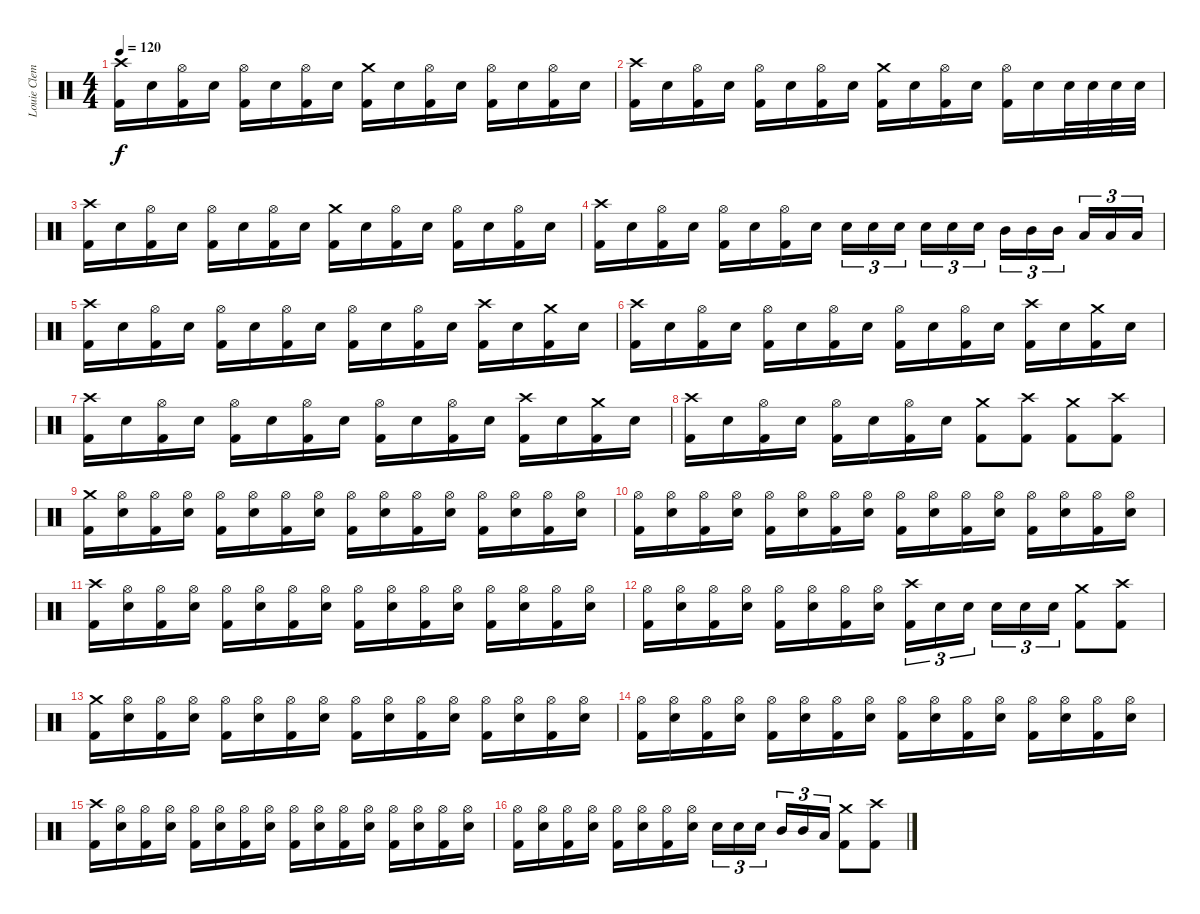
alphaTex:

\track ("Louie Clemente" "Louie Clem") {instrument percussion}
\staff {score}
\articulation defaults
\ts (4 4)
\tempo 120
\clef neutral
\ks c
("Crash high (hit)" "Kick (hit) 2").16{dy f} "Snare (hit) 2".16 ("Hi-Hat (open)" "Kick (hit) 2").16 "Snare (hit) 2".16 ("Hi-Hat (open)" "Kick (hit) 2").16 "Snare (hit) 2".16 ("Hi-Hat (open)" "Kick (hit) 2").16 "Snare (hit) 2".16 ("Crash medium (hit)" "Kick (hit) 2").16 "Snare (hit) 2".16 ("Hi-Hat (open)" "Kick (hit) 2").16 "Snare (hit) 2".16 ("Hi-Hat (open)" "Kick (hit) 2").16 "Snare (hit) 2".16 ("Hi-Hat (open)" "Kick (hit) 2").16 "Snare (hit) 2".16 |
("Crash high (hit)" "Kick (hit) 2").16 "Snare (hit) 2".16 ("Hi-Hat (open)" "Kick (hit) 2").16 "Snare (hit) 2".16 ("Hi-Hat (open)" "Kick (hit) 2").16 "Snare (hit) 2".16 ("Hi-Hat (open)" "Kick (hit) 2").16 "Snare (hit) 2".16 ("Crash medium (hit)" "Kick (hit) 2").16 "Snare (hit) 2".16 ("Hi-Hat (open)" "Kick (hit) 2").16 "Snare (hit) 2".16 ("Hi-Hat (open)" "Kick (hit) 2").16 "Snare (hit) 2".16 "Snare (hit) 2".32 "Snare (hit) 2".32 "Snare (hit) 2".32 "Snare (hit) 2".32 |
("Crash high (hit)" "Kick (hit) 2").16 "Snare (hit) 2".16 ("Hi-Hat (open)" "Kick (hit) 2").16 "Snare (hit) 2".16 ("Hi-Hat (open)" "Kick (hit) 2").16 "Snare (hit) 2".16 ("Hi-Hat (open)" "Kick (hit) 2").16 "Snare (hit) 2".16 ("Crash medium (hit)" "Kick (hit) 2").16 "Snare (hit) 2".16 ("Hi-Hat (open)" "Kick (hit) 2").16 "Snare (hit) 2".16 ("Hi-Hat (open)" "Kick (hit) 2").16 "Snare (hit) 2".16 ("Hi-Hat (open)" "Kick (hit) 2").16 "Snare (hit) 2".16 |
("Crash high (hit)" "Kick (hit) 2").16 "Snare (hit) 2".16 ("Hi-Hat (open)" "Kick (hit) 2").16 "Snare (hit) 2".16 ("Hi-Hat (open)" "Kick (hit) 2").16 "Snare (hit) 2".16 ("Hi-Hat (open)" "Kick (hit) 2").16 "Snare (hit) 2".16 "Snare (hit) 2".16{tu (3 2)} "Snare (hit) 2".16{tu (3 2)} "Snare (hit) 2".16{tu (3 2)} "Snare (hit) 2".16{tu (3 2)} "Snare (hit) 2".16{tu (3 2)} "Snare (hit) 2".16{tu (3 2)} "Mid Tom (hit)".16{tu (3 2)} "Mid Tom (hit)".16{tu (3 2)} "Mid Tom (hit)".16{tu (3 2)} "Low Tom (hit)".16{tu (3 2)} "Low Tom (hit)".16{tu (3 2)} "Low Tom (hit)".16{tu (3 2)} |
("Crash high (hit)" "Kick (hit) 2").16 "Snare (hit) 2".16 ("Hi-Hat (open)" "Kick (hit) 2").16 "Snare (hit) 2".16 ("Hi-Hat (open)" "Kick (hit) 2").16 "Snare (hit) 2".16 ("Hi-Hat (open)" "Kick (hit) 2").16 "Snare (hit) 2".16 ("Hi-Hat (open)" "Kick (hit) 2").16 "Snare (hit) 2".16 ("Hi-Hat (open)" "Kick (hit) 2").16 "Snare (hit) 2".16 ("Crash high (hit)" "Kick (hit) 2").16 "Snare (hit) 2".16 ("Crash medium (hit)" "Kick (hit) 2").16 "Snare (hit) 2".16 |
("Crash high (hit)" "Kick (hit) 2").16 "Snare (hit) 2".16 ("Hi-Hat (open)" "Kick (hit) 2").16 "Snare (hit) 2".16 ("Hi-Hat (open)" "Kick (hit) 2").16 "Snare (hit) 2".16 ("Hi-Hat (open)" "Kick (hit) 2").16 "Snare (hit) 2".16 ("Hi-Hat (open)" "Kick (hit) 2").16 "Snare (hit) 2".16 ("Hi-Hat (open)" "Kick (hit) 2").16 "Snare (hit) 2".16 ("Crash high (hit)" "Kick (hit) 2").16 "Snare (hit) 2".16 ("Crash medium (hit)" "Kick (hit) 2").16 "Snare (hit) 2".16 |
("Crash high (hit)" "Kick (hit) 2").16 "Snare (hit) 2".16 ("Hi-Hat (open)" "Kick (hit) 2").16 "Snare (hit) 2".16 ("Hi-Hat (open)" "Kick (hit) 2").16 "Snare (hit) 2".16 ("Hi-Hat (open)" "Kick (hit) 2").16 "Snare (hit) 2".16 ("Hi-Hat (open)" "Kick (hit) 2").16 "Snare (hit) 2".16 ("Hi-Hat (open)" "Kick (hit) 2").16 "Snare (hit) 2".16 ("Crash high (hit)" "Kick (hit) 2").16 "Snare (hit) 2".16 ("Crash medium (hit)" "Kick (hit) 2").16 "Snare (hit) 2".16 |
("Crash high (hit)" "Kick (hit) 2").16 "Snare (hit) 2".16 ("Hi-Hat (open)" "Kick (hit) 2").16 "Snare (hit) 2".16 ("Hi-Hat (open)" "Kick (hit) 2").16 "Snare (hit) 2".16 ("Hi-Hat (open)" "Kick (hit) 2").16 "Snare (hit) 2".16 ("Crash medium (hit)" "Kick (hit) 2").8 ("Crash high (hit)" "Kick (hit) 2").8 ("Crash medium (hit)" "Kick (hit) 2").8 ("Crash high (hit)" "Kick (hit) 2").8 |
("Crash medium (hit)" "Kick (hit) 2").16 ("Hi-Hat (open)" "Snare (hit) 2").16 ("Hi-Hat (open)" "Kick (hit) 2").16 ("Hi-Hat (open)" "Snare (hit) 2").16 ("Hi-Hat (open)" "Kick (hit) 2").16 ("Hi-Hat (open)" "Snare (hit) 2").16 ("Hi-Hat (open)" "Kick (hit) 2").16 ("Hi-Hat (open)" "Snare (hit) 2").16 ("Hi-Hat (open)" "Kick (hit) 2").16 ("Hi-Hat (open)" "Snare (hit) 2").16 ("Hi-Hat (open)" "Kick (hit) 2").16 ("Hi-Hat (open)" "Snare (hit) 2").16 ("Hi-Hat (open)" "Kick (hit) 2").16 ("Hi-Hat (open)" "Snare (hit) 2").16 ("Hi-Hat (open)" "Kick (hit) 2").16 ("Hi-Hat (open)" "Snare (hit) 2").16 |
("Hi-Hat (open)" "Kick (hit) 2").16 ("Hi-Hat (open)" "Snare (hit) 2").16 ("Hi-Hat (open)" "Kick (hit) 2").16 ("Hi-Hat (open)" "Snare (hit) 2").16 ("Hi-Hat (open)" "Kick (hit) 2").16 ("Hi-Hat (open)" "Snare (hit) 2").16 ("Hi-Hat (open)" "Kick (hit) 2").16 ("Hi-Hat (open)" "Snare (hit) 2").16 ("Hi-Hat (open)" "Kick (hit) 2").16 ("Hi-Hat (open)" "Snare (hit) 2").16 ("Hi-Hat (open)" "Kick (hit) 2").16 ("Hi-Hat (open)" "Snare (hit) 2").16 ("Hi-Hat (open)" "Kick (hit) 2").16 ("Hi-Hat (open)" "Snare (hit) 2").16 ("Hi-Hat (open)" "Kick (hit) 2").16 ("Hi-Hat (open)" "Snare (hit) 2").16 |
("Crash high (hit)" "Kick (hit) 2").16 ("Hi-Hat (open)" "Snare (hit) 2").16 ("Hi-Hat (open)" "Kick (hit) 2").16 ("Hi-Hat (open)" "Snare (hit) 2").16 ("Hi-Hat (open)" "Kick (hit) 2").16 ("Hi-Hat (open)" "Snare (hit) 2").16 ("Hi-Hat (open)" "Kick (hit) 2").16 ("Hi-Hat (open)" "Snare (hit) 2").16 ("Hi-Hat (open)" "Kick (hit) 2").16 ("Hi-Hat (open)" "Snare (hit) 2").16 ("Hi-Hat (open)" "Kick (hit) 2").16 ("Hi-Hat (open)" "Snare (hit) 2").16 ("Hi-Hat (open)" "Kick (hit) 2").16 ("Hi-Hat (open)" "Snare (hit) 2").16 ("Hi-Hat (open)" "Kick (hit) 2").16 ("Hi-Hat (open)" "Snare (hit) 2").16 |
("Hi-Hat (open)" "Kick (hit) 2").16 ("Hi-Hat (open)" "Snare (hit) 2").16 ("Hi-Hat (open)" "Kick (hit) 2").16 ("Hi-Hat (open)" "Snare (hit) 2").16 ("Hi-Hat (open)" "Kick (hit) 2").16 ("Hi-Hat (open)" "Snare (hit) 2").16 ("Hi-Hat (open)" "Kick (hit) 2").16 ("Hi-Hat (open)" "Snare (hit) 2").16 ("Crash high (hit)" "Kick (hit) 2").16{tu (3 2)} "Snare (hit) 2".16{tu (3 2)} "Snare (hit) 2".16{tu (3 2)} "Snare (hit) 2".16{tu (3 2)} "Snare (hit) 2".16{tu (3 2)} "Snare (hit) 2".16{tu (3 2)} ("Crash medium (hit)" "Kick (hit) 2").8 ("Crash high (hit)" "Kick (hit) 2").8 |
("Crash medium (hit)" "Kick (hit) 2").16 ("Hi-Hat (open)" "Snare (hit) 2").16 ("Hi-Hat (open)" "Kick (hit) 2").16 ("Hi-Hat (open)" "Snare (hit) 2").16 ("Hi-Hat (open)" "Kick (hit) 2").16 ("Hi-Hat (open)" "Snare (hit) 2").16 ("Hi-Hat (open)" "Kick (hit) 2").16 ("Hi-Hat (open)" "Snare (hit) 2").16 ("Hi-Hat (open)" "Kick (hit) 2").16 ("Hi-Hat (open)" "Snare (hit) 2").16 ("Hi-Hat (open)" "Kick (hit) 2").16 ("Hi-Hat (open)" "Snare (hit) 2").16 ("Hi-Hat (open)" "Kick (hit) 2").16 ("Hi-Hat (open)" "Snare (hit) 2").16 ("Hi-Hat (open)" "Kick (hit) 2").16 ("Hi-Hat (open)" "Snare (hit) 2").16 |
("Hi-Hat (open)" "Kick (hit) 2").16 ("Hi-Hat (open)" "Snare (hit) 2").16 ("Hi-Hat (open)" "Kick (hit) 2").16 ("Hi-Hat (open)" "Snare (hit) 2").16 ("Hi-Hat (open)" "Kick (hit) 2").16 ("Hi-Hat (open)" "Snare (hit) 2").16 ("Hi-Hat (open)" "Kick (hit) 2").16 ("Hi-Hat (open)" "Snare (hit) 2").16 ("Hi-Hat (open)" "Kick (hit) 2").16 ("Hi-Hat (open)" "Snare (hit) 2").16 ("Hi-Hat (open)" "Kick (hit) 2").16 ("Hi-Hat (open)" "Snare (hit) 2").16 ("Hi-Hat (open)" "Kick (hit) 2").16 ("Hi-Hat (open)" "Snare (hit) 2").16 ("Hi-Hat (open)" "Kick (hit) 2").16 ("Hi-Hat (open)" "Snare (hit) 2").16 |
("Crash high (hit)" "Kick (hit) 2").16 ("Hi-Hat (open)" "Snare (hit) 2").16 ("Hi-Hat (open)" "Kick (hit) 2").16 ("Hi-Hat (open)" "Snare (hit) 2").16 ("Hi-Hat (open)" "Kick (hit) 2").16 ("Hi-Hat (open)" "Snare (hit) 2").16 ("Hi-Hat (open)" "Kick (hit) 2").16 ("Hi-Hat (open)" "Snare (hit) 2").16 ("Hi-Hat (open)" "Kick (hit) 2").16 ("Hi-Hat (open)" "Snare (hit) 2").16 ("Hi-Hat (open)" "Kick (hit) 2").16 ("Hi-Hat (open)" "Snare (hit) 2").16 ("Hi-Hat (open)" "Kick (hit) 2").16 ("Hi-Hat (open)" "Snare (hit) 2").16 ("Hi-Hat (open)" "Kick (hit) 2").16 ("Hi-Hat (open)" "Snare (hit) 2").16 |
("Hi-Hat (open)" "Kick (hit) 2").16 ("Hi-Hat (open)" "Snare (hit) 2").16 ("Hi-Hat (open)" "Kick (hit) 2").16 ("Hi-Hat (open)" "Snare (hit) 2").16 ("Hi-Hat (open)" "Kick (hit) 2").16 ("Hi-Hat (open)" "Snare (hit) 2").16 ("Hi-Hat (open)" "Kick (hit) 2").16 ("Hi-Hat (open)" "Snare (hit) 2").16 "Snare (hit) 2".16{tu (3 2)} "Snare (hit) 2".16{tu (3 2)} "Snare (hit) 2".16{tu (3 2)} "Mid Tom (hit)".16{tu (3 2)} "Mid Tom (hit)".16{tu (3 2)} "Low Tom (hit)".16{tu (3 2)} ("Crash medium (hit)" "Kick (hit) 2").8 ("Crash high (hit)" "Kick (hit) 2").8
